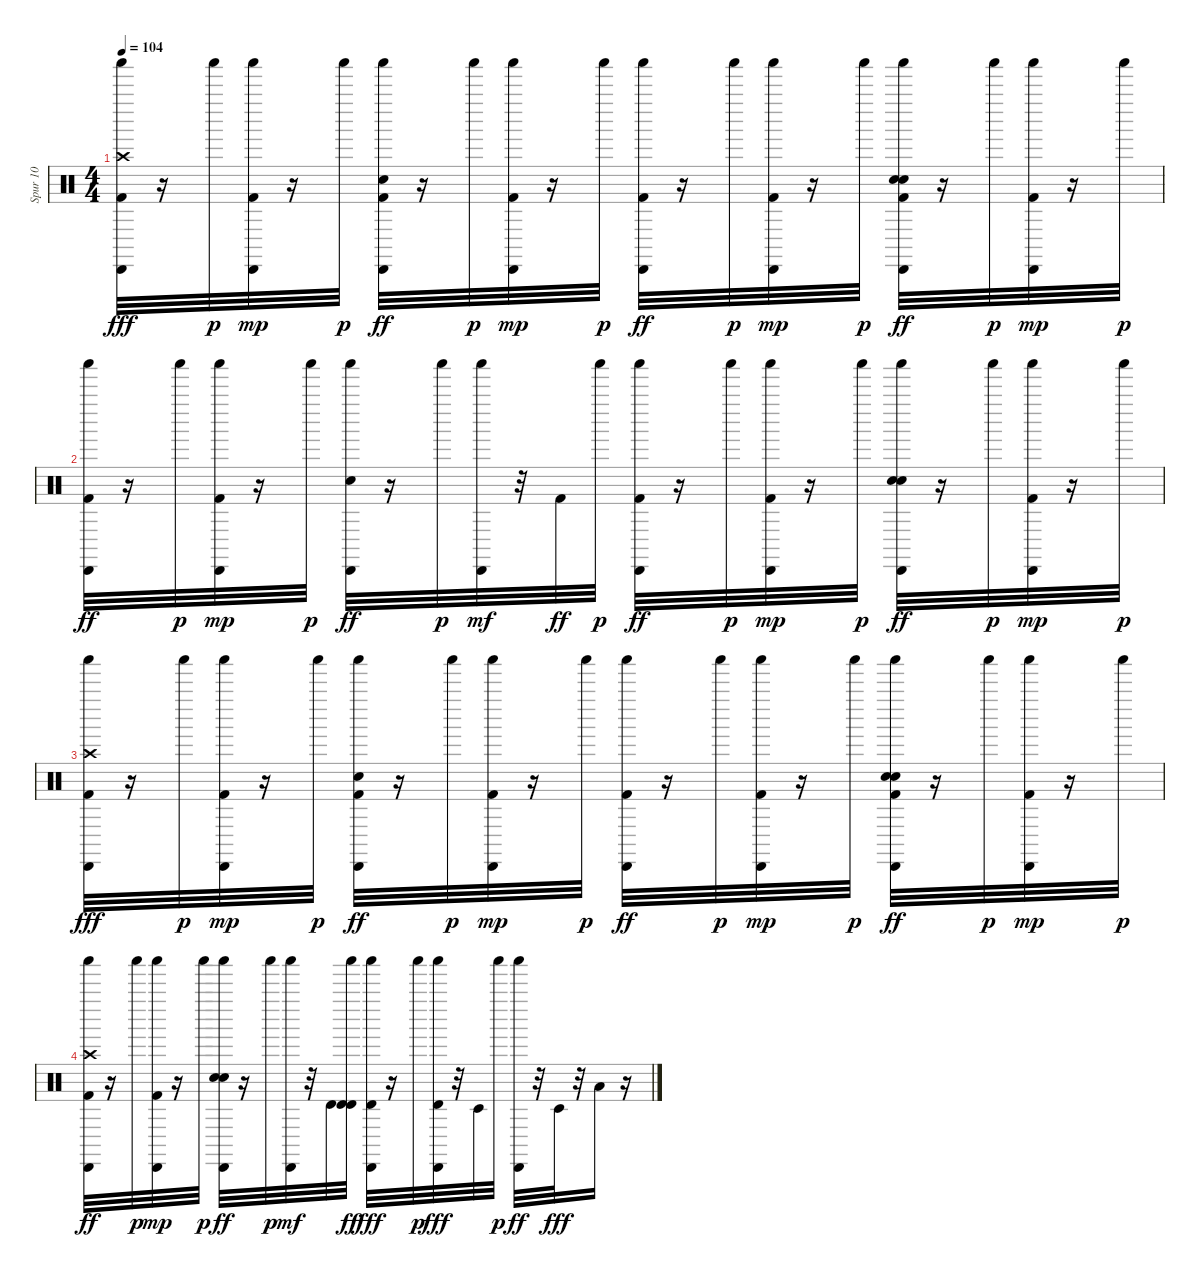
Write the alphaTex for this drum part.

\track ("Spur 10" "Spur 10") {instrument percussion}
\staff {score}
\articulation defaults
\ts (4 4)
\tempo 104
\clef neutral
\ks c
("Crash high (hit)" "Kick (hit) 2" "Cabasa (hit)" "Shaker (hit)").32{dy fff} r.16 "Shaker (hit)".32{dy p} ("Kick (hit) 2" "Cabasa (hit)" "Shaker (hit)").32{dy mp} r.16 "Shaker (hit)".32{dy p} ("Kick (hit) 2" "Snare (hit) 2" "Cabasa (hit)" "Shaker (hit)").32{dy ff} r.16 "Shaker (hit)".32{dy p} ("Kick (hit) 2" "Cabasa (hit)" "Shaker (hit)").32{dy mp} r.16 "Shaker (hit)".32{dy p} ("Kick (hit) 2" "Cabasa (hit)" "Shaker (hit)").32{dy ff} r.16 "Shaker (hit)".32{dy p} ("Kick (hit) 2" "Cabasa (hit)" "Shaker (hit)").32{dy mp} r.16 "Shaker (hit)".32{dy p} ("Kick (hit) 2" "Snare (hit) 2" "Hand Clap (hit)" "Cabasa (hit)" "Shaker (hit)").32{dy ff} r.16 "Shaker (hit)".32{dy p} ("Kick (hit) 2" "Cabasa (hit)" "Shaker (hit)").32{dy mp} r.16 "Shaker (hit)".32{dy p} |
("Kick (hit) 2" "Cabasa (hit)" "Shaker (hit)").32{dy ff} r.16 "Shaker (hit)".32{dy p} ("Kick (hit) 2" "Cabasa (hit)" "Shaker (hit)").32{dy mp} r.16 "Shaker (hit)".32{dy p} ("Snare (hit) 2" "Cabasa (hit)" "Shaker (hit)").32{dy ff} r.16 "Shaker (hit)".32{dy p} ("Cabasa (hit)" "Shaker (hit)").32{dy mf} r.32 "Kick (hit) 2".32{dy ff} "Shaker (hit)".32{dy p} ("Kick (hit) 2" "Cabasa (hit)" "Shaker (hit)").32{dy ff} r.16 "Shaker (hit)".32{dy p} ("Kick (hit) 2" "Cabasa (hit)" "Shaker (hit)").32{dy mp} r.16 "Shaker (hit)".32{dy p} ("Snare (hit) 2" "Hand Clap (hit)" "Cabasa (hit)" "Shaker (hit)").32{dy ff} r.16 "Shaker (hit)".32{dy p} ("Kick (hit) 2" "Cabasa (hit)" "Shaker (hit)").32{dy mp} r.16 "Shaker (hit)".32{dy p} |
("Crash high (hit)" "Kick (hit) 2" "Cabasa (hit)" "Shaker (hit)").32{dy fff} r.16 "Shaker (hit)".32{dy p} ("Kick (hit) 2" "Cabasa (hit)" "Shaker (hit)").32{dy mp} r.16 "Shaker (hit)".32{dy p} ("Kick (hit) 2" "Snare (hit) 2" "Cabasa (hit)" "Shaker (hit)").32{dy ff} r.16 "Shaker (hit)".32{dy p} ("Kick (hit) 2" "Cabasa (hit)" "Shaker (hit)").32{dy mp} r.16 "Shaker (hit)".32{dy p} ("Kick (hit) 2" "Cabasa (hit)" "Shaker (hit)").32{dy ff} r.16 "Shaker (hit)".32{dy p} ("Kick (hit) 2" "Cabasa (hit)" "Shaker (hit)").32{dy mp} r.16 "Shaker (hit)".32{dy p} ("Kick (hit) 2" "Snare (hit) 2" "Hand Clap (hit)" "Cabasa (hit)" "Shaker (hit)").32{dy ff} r.16 "Shaker (hit)".32{dy p} ("Kick (hit) 2" "Cabasa (hit)" "Shaker (hit)").32{dy mp} r.16 "Shaker (hit)".32{dy p} |
("Crash high (hit)" "Kick (hit) 2" "Cabasa (hit)" "Shaker (hit)").32{dy ff} r.16 "Shaker (hit)".32{dy p} ("Kick (hit) 2" "Cabasa (hit)" "Shaker (hit)").32{dy mp} r.16 "Shaker (hit)".32{dy p} ("Hand Clap (hit)" "Snare (hit) 2" "Cabasa (hit)" "Shaker (hit)").32{dy ff} r.16 "Shaker (hit)".32{dy p} ("Cabasa (hit)" "Shaker (hit)").32{dy mf} r.32 "Timbale high (hit)".32 ("Shaker (hit)" "Timbale high (hit)" "Timbale high (hit)").32{dy ff} ("Cabasa (hit)" "Shaker (hit)" "Timbale high (hit)").32{dy fff} r.16 "Shaker (hit)".32{dy p} ("Cabasa (hit)" "Shaker (hit)" "Timbale high (hit)").32{dy fff} r.32 "Timbale low (hit)".32 "Shaker (hit)".32{dy p} ("Cabasa (hit)" "Shaker (hit)").32{dy ff} r.32 "Timbale low (hit)".32{dy fff} r.32 "Low Tom (hit)".16 r.16
